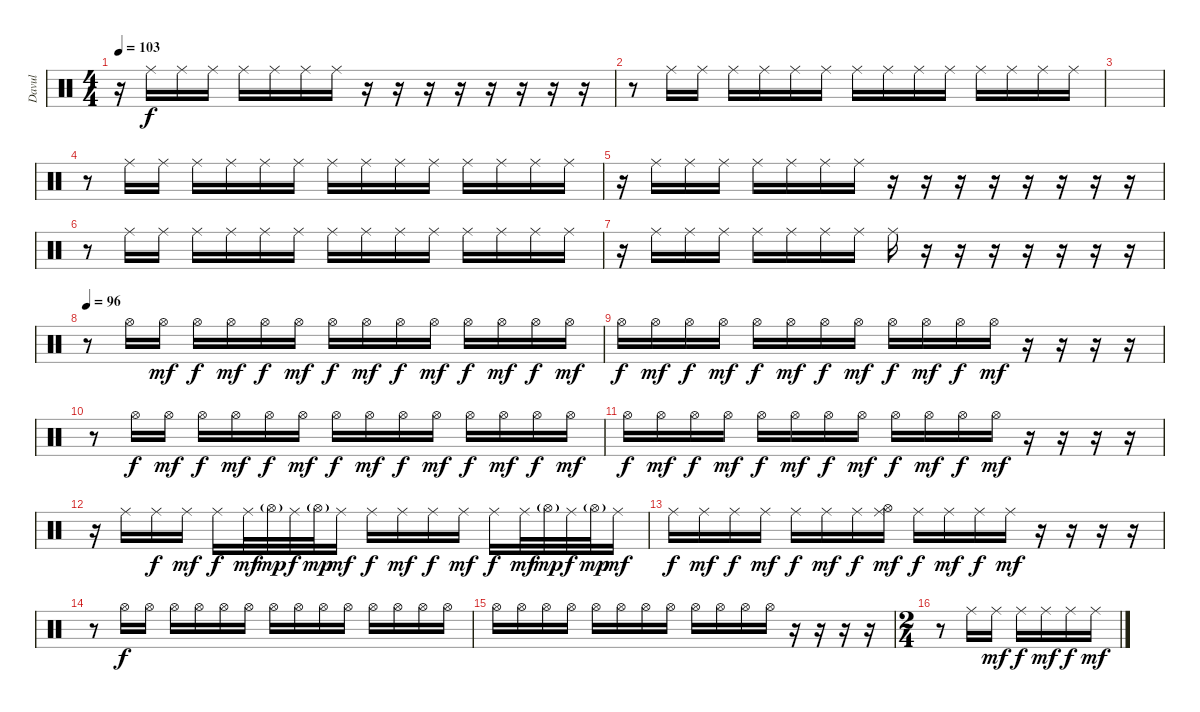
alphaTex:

\track ("Davul" "Davul") {instrument percussion}
\staff {score}
\articulation defaults
\ts (4 4)
\tempo 103
\clef neutral
\ks c
r.16{dy f} "Ride (middle)".16 "Ride (middle)".16 "Ride (middle)".16 "Ride (middle)".16 "Ride (middle)".16 "Ride (middle)".16 "Ride (middle)".16 r.16 r.16 r.16 r.16 r.16 r.16 r.16 r.16 |
r.8 "Ride (middle)".16 "Ride (middle)".16 "Ride (middle)".16 "Ride (middle)".16 "Ride (middle)".16 "Ride (middle)".16 "Ride (middle)".16 "Ride (middle)".16 "Ride (middle)".16 "Ride (middle)".16 "Ride (middle)".16 "Ride (middle)".16 "Ride (middle)".16 "Ride (middle)".16 |
|
r.8 "Ride (middle)".16 "Ride (middle)".16 "Ride (middle)".16 "Ride (middle)".16 "Ride (middle)".16 "Ride (middle)".16 "Ride (middle)".16 "Ride (middle)".16 "Ride (middle)".16 "Ride (middle)".16 "Ride (middle)".16 "Ride (middle)".16 "Ride (middle)".16 "Ride (middle)".16 |
r.16 "Ride (middle)".16 "Ride (middle)".16 "Ride (middle)".16 "Ride (middle)".16 "Ride (middle)".16 "Ride (middle)".16 "Ride (middle)".16 r.16 r.16 r.16 r.16 r.16 r.16 r.16 r.16 |
r.8 "Ride (middle)".16 "Ride (middle)".16 "Ride (middle)".16 "Ride (middle)".16 "Ride (middle)".16 "Ride (middle)".16 "Ride (middle)".16 "Ride (middle)".16 "Ride (middle)".16 "Ride (middle)".16 "Ride (middle)".16 "Ride (middle)".16 "Ride (middle)".16 "Ride (middle)".16 |
r.16 "Ride (middle)".16 "Ride (middle)".16 "Ride (middle)".16 "Ride (middle)".16 "Ride (middle)".16 "Ride (middle)".16 "Ride (middle)".16 "Ride (middle)".16 r.16 r.16 r.16 r.16 r.16 r.16 r.16 |
\section ("" "")
\tempo 96
r.8 "Hi-Hat (open)".16 "Hi-Hat (open)".16{dy mf} "Hi-Hat (open)".16{dy f} "Hi-Hat (open)".16{dy mf} "Hi-Hat (open)".16{dy f} "Hi-Hat (open)".16{dy mf} "Hi-Hat (open)".16{dy f} "Hi-Hat (open)".16{dy mf} "Hi-Hat (open)".16{dy f} "Hi-Hat (open)".16{dy mf} "Hi-Hat (open)".16{dy f} "Hi-Hat (open)".16{dy mf} "Hi-Hat (open)".16{dy f} "Hi-Hat (open)".16{dy mf} |
"Hi-Hat (open)".16{dy f} "Hi-Hat (open)".16{dy mf} "Hi-Hat (open)".16{dy f} "Hi-Hat (open)".16{dy mf} "Hi-Hat (open)".16{dy f} "Hi-Hat (open)".16{dy mf} "Hi-Hat (open)".16{dy f} "Hi-Hat (open)".16{dy mf} "Hi-Hat (open)".16{dy f} "Hi-Hat (open)".16{dy mf} "Hi-Hat (open)".16{dy f} "Hi-Hat (open)".16{dy mf} r.16 r.16 r.16 r.16 |
r.8 "Hi-Hat (open)".16{dy f} "Hi-Hat (open)".16{dy mf} "Hi-Hat (open)".16{dy f} "Hi-Hat (open)".16{dy mf} "Hi-Hat (open)".16{dy f} "Hi-Hat (open)".16{dy mf} "Hi-Hat (open)".16{dy f} "Hi-Hat (open)".16{dy mf} "Hi-Hat (open)".16{dy f} "Hi-Hat (open)".16{dy mf} "Hi-Hat (open)".16{dy f} "Hi-Hat (open)".16{dy mf} "Hi-Hat (open)".16{dy f} "Hi-Hat (open)".16{dy mf} |
"Hi-Hat (open)".16{dy f} "Hi-Hat (open)".16{dy mf} "Hi-Hat (open)".16{dy f} "Hi-Hat (open)".16{dy mf} "Hi-Hat (open)".16{dy f} "Hi-Hat (open)".16{dy mf} "Hi-Hat (open)".16{dy f} "Hi-Hat (open)".16{dy mf} "Hi-Hat (open)".16{dy f} "Hi-Hat (open)".16{dy mf} "Hi-Hat (open)".16{dy f} "Hi-Hat (open)".16{dy mf} r.16 r.16 r.16 r.16 |
r.16 "Ride (middle)".16 "Ride (middle)".16{dy f} "Ride (middle)".16{dy mf} "Ride (middle)".16{dy f} "Ride (middle)".32{dy mf} "Hi-Hat (open)"{g}.32{dy mp} "Ride (middle)".32{dy f} "Hi-Hat (open)"{g}.32{dy mp} "Ride (middle)".16{dy mf} "Ride (middle)".16{dy f} "Ride (middle)".16{dy mf} "Ride (middle)".16{dy f} "Ride (middle)".16{dy mf} "Ride (middle)".16{dy f} "Ride (middle)".32{dy mf} "Hi-Hat (open)"{g}.32{dy mp} "Ride (middle)".32{dy f} "Hi-Hat (open)"{g}.32{dy mp} "Ride (middle)".16{dy mf} |
"Ride (middle)".16{dy f} "Ride (middle)".16{dy mf} "Ride (middle)".16{dy f} "Ride (middle)".16{dy mf} "Ride (middle)".16{dy f} "Ride (middle)".16{dy mf} "Ride (middle)".16{dy f} ("Hi-Hat (open)" "Ride (middle)").16{dy mf} "Ride (middle)".16{dy f} "Ride (middle)".16{dy mf} "Ride (middle)".16{dy f} "Ride (middle)".16{dy mf} r.16 r.16 r.16 r.16 |
r.8 "Hi-Hat (open)".16{dy f} "Hi-Hat (open)".16 "Hi-Hat (open)".16 "Hi-Hat (open)".16 "Hi-Hat (open)".16 "Hi-Hat (open)".16 "Hi-Hat (open)".16 "Hi-Hat (open)".16 "Hi-Hat (open)".16 "Hi-Hat (open)".16 "Hi-Hat (open)".16 "Hi-Hat (open)".16 "Hi-Hat (open)".16 "Hi-Hat (open)".16 |
"Hi-Hat (open)".16 "Hi-Hat (open)".16 "Hi-Hat (open)".16 "Hi-Hat (open)".16 "Hi-Hat (open)".16 "Hi-Hat (open)".16 "Hi-Hat (open)".16 "Hi-Hat (open)".16 "Hi-Hat (open)".16 "Hi-Hat (open)".16 "Hi-Hat (open)".16 "Hi-Hat (open)".16 r.16 r.16 r.16 r.16 |
\ts (2 4)
r.8 "Ride (middle)".16 "Ride (middle)".16{dy mf} "Ride (middle)".16{dy f} "Ride (middle)".16{dy mf} "Ride (middle)".16{dy f} "Ride (middle)".16{dy mf}
